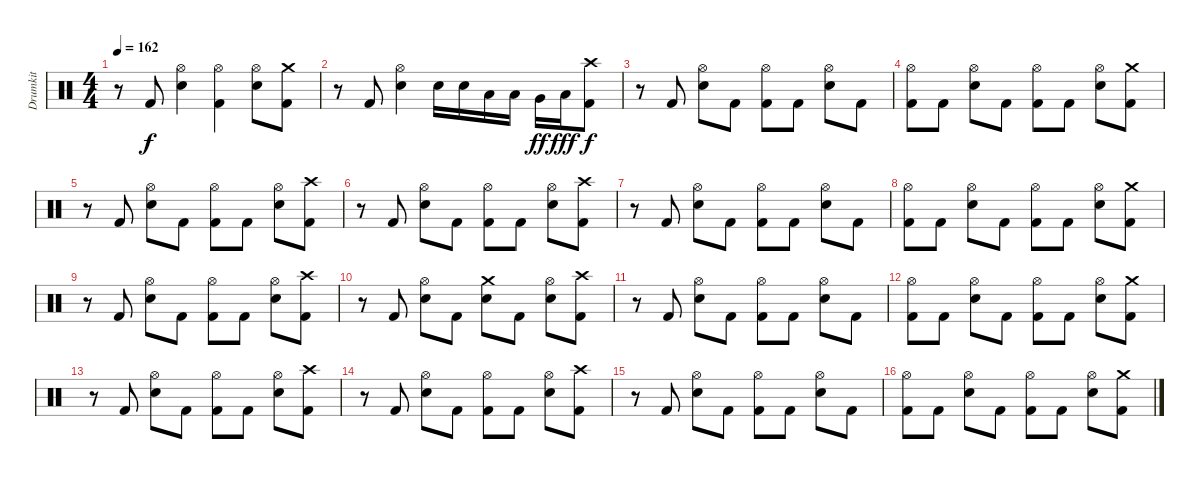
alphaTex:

\track ("Drumkit" "Drumkit") {instrument percussion}
\staff {score}
\articulation defaults
\ts (4 4)
\tempo 162
\clef neutral
\ks c
r.8{dy f} "Kick (hit) 2".8 ("Hi-Hat (open)" "Electric Snare (hit)").4 ("Hi-Hat (open)" "Kick (hit) 2").4 ("Hi-Hat (open)" "Electric Snare (hit)").8 ("Crash medium (hit)" "Kick (hit) 2").8 |
r.8 "Kick (hit) 2".8 ("Hi-Hat (open)" "Electric Snare (hit)").4 "Electric Snare (hit)".16 "Electric Snare (hit)".16 "Low Tom (hit)".16 "Low Tom (hit)".16 "Very Low Tom (hit)".16{dy ff} "Low Floor Tom (hit)".16{dy fff} ("Crash high (hit)" "Kick (hit) 2").8{dy f} |
r.8 "Kick (hit) 2".8 ("Hi-Hat (open)" "Electric Snare (hit)").8 "Kick (hit) 2".8 ("Hi-Hat (open)" "Kick (hit) 2").8 "Kick (hit) 2".8 ("Hi-Hat (open)" "Electric Snare (hit)").8 "Kick (hit) 2".8 |
("Hi-Hat (open)" "Kick (hit) 2").8 "Kick (hit) 2".8 ("Hi-Hat (open)" "Electric Snare (hit)").8 "Kick (hit) 2".8 ("Hi-Hat (open)" "Kick (hit) 2").8 "Kick (hit) 2".8 ("Hi-Hat (open)" "Electric Snare (hit)").8 ("Crash medium (hit)" "Kick (hit) 2").8 |
r.8 "Kick (hit) 2".8 ("Hi-Hat (open)" "Electric Snare (hit)").8 "Kick (hit) 2".8 ("Hi-Hat (open)" "Kick (hit) 2").8 "Kick (hit) 2".8 ("Hi-Hat (open)" "Electric Snare (hit)").8 ("Crash high (hit)" "Kick (hit) 2").8 |
r.8 "Kick (hit) 2".8 ("Hi-Hat (open)" "Electric Snare (hit)").8 "Kick (hit) 2".8 ("Hi-Hat (open)" "Kick (hit) 2").8 "Kick (hit) 2".8 ("Hi-Hat (open)" "Electric Snare (hit)").8 ("Crash high (hit)" "Kick (hit) 2").8 |
r.8 "Kick (hit) 2".8 ("Hi-Hat (open)" "Electric Snare (hit)").8 "Kick (hit) 2".8 ("Hi-Hat (open)" "Kick (hit) 2").8 "Kick (hit) 2".8 ("Hi-Hat (open)" "Electric Snare (hit)").8 "Kick (hit) 2".8 |
("Hi-Hat (open)" "Kick (hit) 2").8 "Kick (hit) 2".8 ("Hi-Hat (open)" "Electric Snare (hit)").8 "Kick (hit) 2".8 ("Hi-Hat (open)" "Kick (hit) 2").8 "Kick (hit) 2".8 ("Hi-Hat (open)" "Electric Snare (hit)").8 ("Crash medium (hit)" "Kick (hit) 2").8 |
r.8 "Kick (hit) 2".8 ("Hi-Hat (open)" "Electric Snare (hit)").8 "Kick (hit) 2".8 ("Hi-Hat (open)" "Kick (hit) 2").8 "Kick (hit) 2".8 ("Hi-Hat (open)" "Electric Snare (hit)").8 ("Crash high (hit)" "Kick (hit) 2").8 |
r.8 "Kick (hit) 2".8 ("Hi-Hat (open)" "Electric Snare (hit)").8 "Kick (hit) 2".8 ("Crash medium (hit)" "Electric Snare (hit)").8 "Kick (hit) 2".8 ("Hi-Hat (open)" "Electric Snare (hit)").8 ("Crash high (hit)" "Kick (hit) 2").8 |
r.8 "Kick (hit) 2".8 ("Hi-Hat (open)" "Electric Snare (hit)").8 "Kick (hit) 2".8 ("Hi-Hat (open)" "Kick (hit) 2").8 "Kick (hit) 2".8 ("Hi-Hat (open)" "Electric Snare (hit)").8 "Kick (hit) 2".8 |
("Hi-Hat (open)" "Kick (hit) 2").8 "Kick (hit) 2".8 ("Hi-Hat (open)" "Electric Snare (hit)").8 "Kick (hit) 2".8 ("Hi-Hat (open)" "Kick (hit) 2").8 "Kick (hit) 2".8 ("Hi-Hat (open)" "Electric Snare (hit)").8 ("Crash medium (hit)" "Kick (hit) 2").8 |
r.8 "Kick (hit) 2".8 ("Hi-Hat (open)" "Electric Snare (hit)").8 "Kick (hit) 2".8 ("Hi-Hat (open)" "Kick (hit) 2").8 "Kick (hit) 2".8 ("Hi-Hat (open)" "Electric Snare (hit)").8 ("Crash high (hit)" "Kick (hit) 2").8 |
r.8 "Kick (hit) 2".8 ("Hi-Hat (open)" "Electric Snare (hit)").8 "Kick (hit) 2".8 ("Hi-Hat (open)" "Kick (hit) 2").8 "Kick (hit) 2".8 ("Hi-Hat (open)" "Electric Snare (hit)").8 ("Crash high (hit)" "Kick (hit) 2").8 |
r.8 "Kick (hit) 2".8 ("Hi-Hat (open)" "Electric Snare (hit)").8 "Kick (hit) 2".8 ("Hi-Hat (open)" "Kick (hit) 2").8 "Kick (hit) 2".8 ("Hi-Hat (open)" "Electric Snare (hit)").8 "Kick (hit) 2".8 |
("Hi-Hat (open)" "Kick (hit) 2").8 "Kick (hit) 2".8 ("Hi-Hat (open)" "Electric Snare (hit)").8 "Kick (hit) 2".8 ("Hi-Hat (open)" "Kick (hit) 2").8 "Kick (hit) 2".8 ("Hi-Hat (open)" "Electric Snare (hit)").8 ("Crash medium (hit)" "Kick (hit) 2").8
